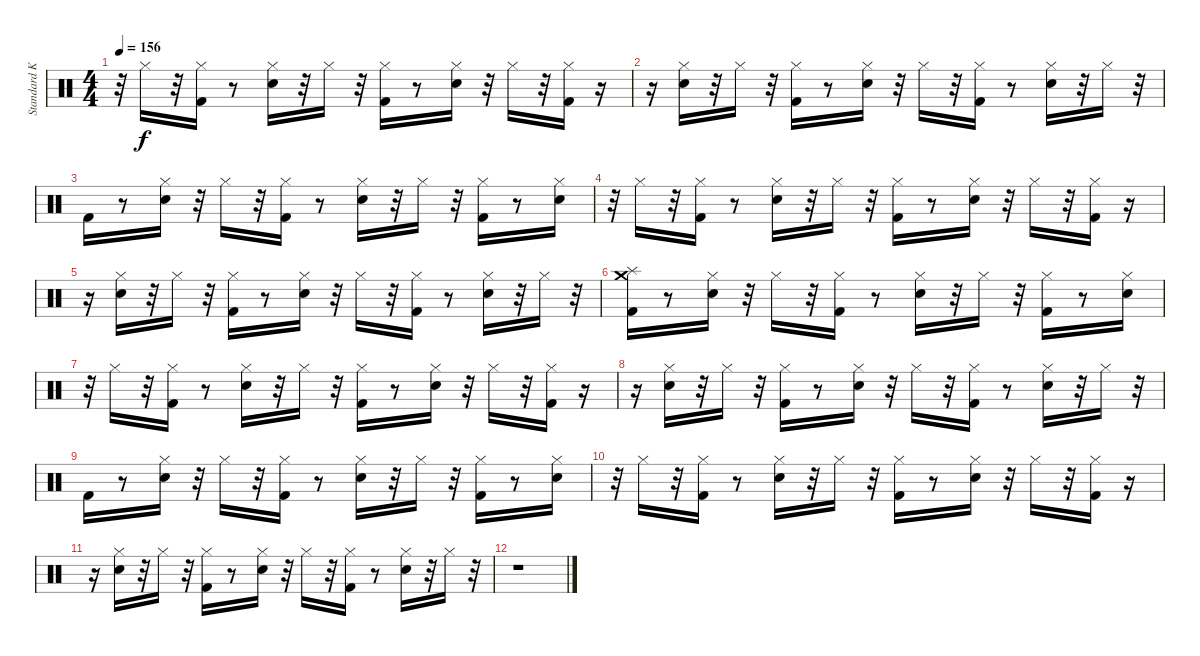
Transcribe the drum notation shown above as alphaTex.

\track ("Standard Kit" "Standard K") {instrument percussion}
\staff {score}
\articulation defaults
\ts (4 4)
\tempo 156
\clef neutral
\ks c
r.32{dy f} "Hi-Hat (closed)".16 r.32 ("Kick (hit) 2" "Hi-Hat (closed)").16 r.8 ("Electric Snare (hit)" "Hi-Hat (closed)").16 r.32 "Hi-Hat (closed)".16 r.32 ("Kick (hit) 2" "Hi-Hat (closed)").16 r.8 ("Electric Snare (hit)" "Hi-Hat (closed)").16 r.32 "Hi-Hat (closed)".16 r.32 ("Kick (hit) 2" "Hi-Hat (closed)").16 r.16 |
r.16 ("Electric Snare (hit)" "Hi-Hat (closed)").16 r.32 "Hi-Hat (closed)".16 r.32 ("Kick (hit) 2" "Hi-Hat (closed)").16 r.8 ("Electric Snare (hit)" "Hi-Hat (closed)").16 r.32 "Hi-Hat (closed)".16 r.32 ("Kick (hit) 2" "Hi-Hat (closed)").16 r.8 ("Electric Snare (hit)" "Hi-Hat (closed)").16 r.32 "Hi-Hat (closed)".16 r.32 |
"Kick (hit) 2".16 r.8 ("Electric Snare (hit)" "Hi-Hat (closed)").16 r.32 "Hi-Hat (closed)".16 r.32 ("Kick (hit) 2" "Hi-Hat (closed)").16 r.8 ("Electric Snare (hit)" "Hi-Hat (closed)").16 r.32 "Hi-Hat (closed)".16 r.32 ("Kick (hit) 2" "Hi-Hat (closed)").16 r.8 ("Electric Snare (hit)" "Hi-Hat (closed)").16 |
r.32 "Hi-Hat (closed)".16 r.32 ("Kick (hit) 2" "Hi-Hat (closed)").16 r.8 ("Electric Snare (hit)" "Hi-Hat (closed)").16 r.32 "Hi-Hat (closed)".16 r.32 ("Kick (hit) 2" "Hi-Hat (closed)").16 r.8 ("Electric Snare (hit)" "Hi-Hat (closed)").16 r.32 "Hi-Hat (closed)".16 r.32 ("Kick (hit) 2" "Hi-Hat (closed)").16 r.16 |
r.16 ("Electric Snare (hit)" "Hi-Hat (closed)").16 r.32 "Hi-Hat (closed)".16 r.32 ("Kick (hit) 2" "Hi-Hat (closed)").16 r.8 ("Electric Snare (hit)" "Hi-Hat (closed)").16 r.32 "Hi-Hat (closed)".16 r.32 ("Kick (hit) 2" "Hi-Hat (closed)").16 r.8 ("Electric Snare (hit)" "Hi-Hat (closed)").16 r.32 "Hi-Hat (closed)".16 r.32 |
("Kick (hit) 2" "Splash (hit)" "Crash medium (hit)").16 r.8 ("Electric Snare (hit)" "Hi-Hat (closed)").16 r.32 "Hi-Hat (closed)".16 r.32 ("Kick (hit) 2" "Hi-Hat (closed)").16 r.8 ("Electric Snare (hit)" "Hi-Hat (closed)").16 r.32 "Hi-Hat (closed)".16 r.32 ("Kick (hit) 2" "Hi-Hat (closed)").16 r.8 ("Electric Snare (hit)" "Hi-Hat (closed)").16 |
r.32 "Hi-Hat (closed)".16 r.32 ("Kick (hit) 2" "Hi-Hat (closed)").16 r.8 ("Electric Snare (hit)" "Hi-Hat (closed)").16 r.32 "Hi-Hat (closed)".16 r.32 ("Kick (hit) 2" "Hi-Hat (closed)").16 r.8 ("Electric Snare (hit)" "Hi-Hat (closed)").16 r.32 "Hi-Hat (closed)".16 r.32 ("Kick (hit) 2" "Hi-Hat (closed)").16 r.16 |
r.16 ("Electric Snare (hit)" "Hi-Hat (closed)").16 r.32 "Hi-Hat (closed)".16 r.32 ("Kick (hit) 2" "Hi-Hat (closed)").16 r.8 ("Electric Snare (hit)" "Hi-Hat (closed)").16 r.32 "Hi-Hat (closed)".16 r.32 ("Kick (hit) 2" "Hi-Hat (closed)").16 r.8 ("Electric Snare (hit)" "Hi-Hat (closed)").16 r.32 "Hi-Hat (closed)".16 r.32 |
"Kick (hit) 2".16 r.8 ("Electric Snare (hit)" "Hi-Hat (closed)").16 r.32 "Hi-Hat (closed)".16 r.32 ("Kick (hit) 2" "Hi-Hat (closed)").16 r.8 ("Electric Snare (hit)" "Hi-Hat (closed)").16 r.32 "Hi-Hat (closed)".16 r.32 ("Kick (hit) 2" "Hi-Hat (closed)").16 r.8 ("Electric Snare (hit)" "Hi-Hat (closed)").16 |
r.32 "Hi-Hat (closed)".16 r.32 ("Kick (hit) 2" "Hi-Hat (closed)").16 r.8 ("Electric Snare (hit)" "Hi-Hat (closed)").16 r.32 "Hi-Hat (closed)".16 r.32 ("Kick (hit) 2" "Hi-Hat (closed)").16 r.8 ("Electric Snare (hit)" "Hi-Hat (closed)").16 r.32 "Hi-Hat (closed)".16 r.32 ("Kick (hit) 2" "Hi-Hat (closed)").16 r.16 |
r.16 ("Electric Snare (hit)" "Hi-Hat (closed)").16 r.32 "Hi-Hat (closed)".16 r.32 ("Kick (hit) 2" "Hi-Hat (closed)").16 r.8 ("Electric Snare (hit)" "Hi-Hat (closed)").16 r.32 "Hi-Hat (closed)".16 r.32 ("Kick (hit) 2" "Hi-Hat (closed)").16 r.8 ("Electric Snare (hit)" "Hi-Hat (closed)").16 r.32 "Hi-Hat (closed)".16 r.32 |
r.1
